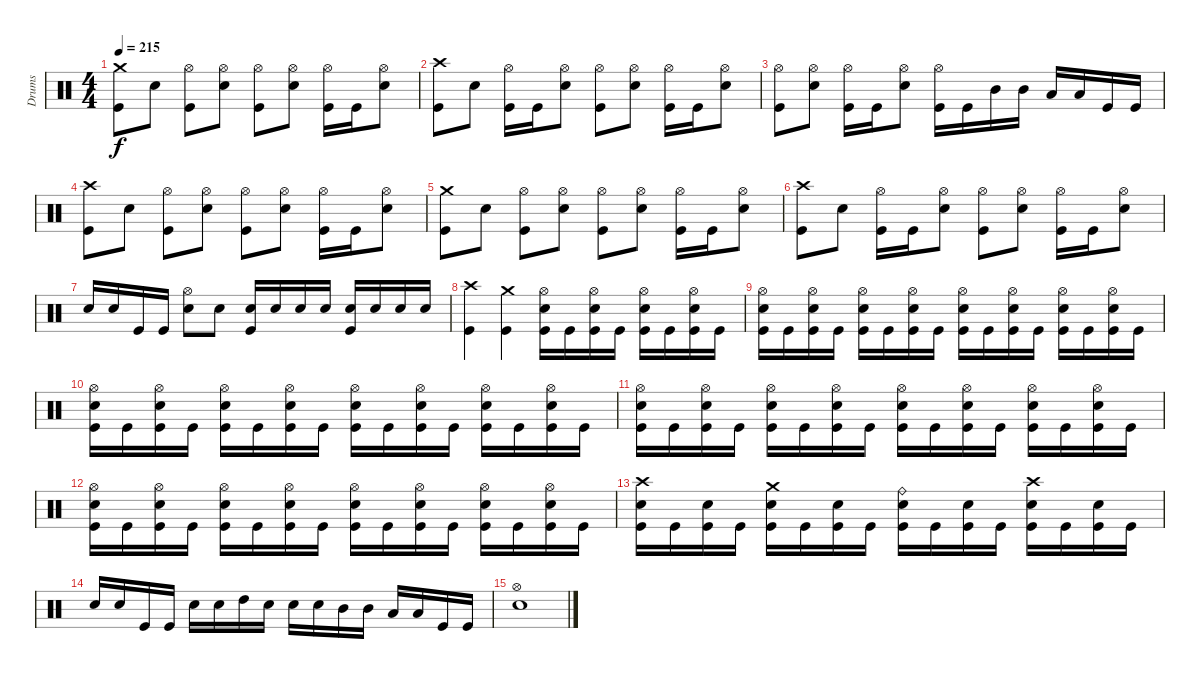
\track ("Drums" "Drums") {instrument percussion}
\staff {score}
\articulation defaults
\ts (4 4)
\tempo 215
\clef neutral
\ks c
("Crash medium (hit)" "Kick (hit)").8{dy f} "Snare (hit) 2".8 ("Hi-Hat (open)" "Kick (hit)").8 ("Hi-Hat (open)" "Snare (hit) 2").8 ("Hi-Hat (open)" "Kick (hit)").8 ("Hi-Hat (open)" "Snare (hit) 2").8 ("Hi-Hat (open)" "Kick (hit)").16 "Kick (hit)".16 ("Hi-Hat (open)" "Snare (hit) 2").8 |
("Crash high (hit)" "Kick (hit)").8 "Snare (hit) 2".8 ("Hi-Hat (open)" "Kick (hit)").16 "Kick (hit)".16 ("Hi-Hat (open)" "Snare (hit) 2").8 ("Hi-Hat (open)" "Kick (hit)").8 ("Hi-Hat (open)" "Snare (hit) 2").8 ("Hi-Hat (open)" "Kick (hit)").16 "Kick (hit)".16 ("Hi-Hat (open)" "Snare (hit) 2").8 |
("Hi-Hat (open)" "Kick (hit)").8 ("Hi-Hat (open)" "Snare (hit) 2").8 ("Hi-Hat (open)" "Kick (hit)").16 "Kick (hit)".16 ("Hi-Hat (open)" "Snare (hit) 2").8 ("Hi-Hat (open)" "Kick (hit)").16 "Kick (hit)".16 "Mid Tom (hit)".16 "Mid Tom (hit)".16 "Low Tom (hit)".16 "Low Tom (hit)".16 "Kick (hit)".16 "Kick (hit)".16 |
("Crash high (hit)" "Kick (hit)").8 "Snare (hit) 2".8 ("Hi-Hat (open)" "Kick (hit)").8 ("Hi-Hat (open)" "Snare (hit) 2").8 ("Hi-Hat (open)" "Kick (hit)").8 ("Hi-Hat (open)" "Snare (hit) 2").8 ("Hi-Hat (open)" "Kick (hit)").16 "Kick (hit)".16 ("Hi-Hat (open)" "Snare (hit) 2").8 |
("Crash medium (hit)" "Kick (hit)").8 "Snare (hit) 2".8 ("Hi-Hat (open)" "Kick (hit)").8 ("Hi-Hat (open)" "Snare (hit) 2").8 ("Hi-Hat (open)" "Kick (hit)").8 ("Hi-Hat (open)" "Snare (hit) 2").8 ("Hi-Hat (open)" "Kick (hit)").16 "Kick (hit)".16 ("Hi-Hat (open)" "Snare (hit) 2").8 |
("Crash high (hit)" "Kick (hit)").8 "Snare (hit) 2".8 ("Hi-Hat (open)" "Kick (hit)").16 "Kick (hit)".16 ("Hi-Hat (open)" "Snare (hit) 2").8 ("Hi-Hat (open)" "Kick (hit)").8 ("Hi-Hat (open)" "Snare (hit) 2").8 ("Hi-Hat (open)" "Kick (hit)").16 "Kick (hit)".16 ("Hi-Hat (open)" "Snare (hit) 2").8 |
"Snare (hit) 2".16 "Snare (hit) 2".16 "Kick (hit)".16 "Kick (hit)".16 ("Hi-Hat (open)" "Snare (hit) 2").8 "Snare (hit) 2".8 ("Snare (hit) 2" "Kick (hit)").16 "Snare (hit) 2".16 "Snare (hit) 2".16 "Snare (hit) 2".16 ("Snare (hit) 2" "Kick (hit)").16 "Snare (hit) 2".16 "Snare (hit) 2".16 "Snare (hit) 2".16 |
("Crash high (hit)" "Kick (hit)").4 ("Crash medium (hit)" "Kick (hit)").4 ("Hi-Hat (open)" "Snare (hit) 2" "Kick (hit)").16 "Kick (hit)".16 ("Hi-Hat (open)" "Snare (hit) 2" "Kick (hit)").16 "Kick (hit)".16 ("Hi-Hat (open)" "Snare (hit) 2" "Kick (hit)").16 "Kick (hit)".16 ("Hi-Hat (open)" "Snare (hit) 2" "Kick (hit)").16 "Kick (hit)".16 |
("Hi-Hat (open)" "Snare (hit) 2" "Kick (hit)").16 "Kick (hit)".16 ("Hi-Hat (open)" "Snare (hit) 2" "Kick (hit)").16 "Kick (hit)".16 ("Hi-Hat (open)" "Snare (hit) 2" "Kick (hit)").16 "Kick (hit)".16 ("Hi-Hat (open)" "Snare (hit) 2" "Kick (hit)").16 "Kick (hit)".16 ("Hi-Hat (open)" "Snare (hit) 2" "Kick (hit)").16 "Kick (hit)".16 ("Hi-Hat (open)" "Snare (hit) 2" "Kick (hit)").16 "Kick (hit)".16 ("Hi-Hat (open)" "Snare (hit) 2" "Kick (hit)").16 "Kick (hit)".16 ("Hi-Hat (open)" "Snare (hit) 2" "Kick (hit)").16 "Kick (hit)".16 |
("Hi-Hat (open)" "Snare (hit) 2" "Kick (hit)").16 "Kick (hit)".16 ("Hi-Hat (open)" "Snare (hit) 2" "Kick (hit)").16 "Kick (hit)".16 ("Hi-Hat (open)" "Snare (hit) 2" "Kick (hit)").16 "Kick (hit)".16 ("Hi-Hat (open)" "Snare (hit) 2" "Kick (hit)").16 "Kick (hit)".16 ("Hi-Hat (open)" "Snare (hit) 2" "Kick (hit)").16 "Kick (hit)".16 ("Hi-Hat (open)" "Snare (hit) 2" "Kick (hit)").16 "Kick (hit)".16 ("Hi-Hat (open)" "Snare (hit) 2" "Kick (hit)").16 "Kick (hit)".16 ("Hi-Hat (open)" "Snare (hit) 2" "Kick (hit)").16 "Kick (hit)".16 |
("Hi-Hat (open)" "Snare (hit) 2" "Kick (hit)").16 "Kick (hit)".16 ("Hi-Hat (open)" "Snare (hit) 2" "Kick (hit)").16 "Kick (hit)".16 ("Hi-Hat (open)" "Snare (hit) 2" "Kick (hit)").16 "Kick (hit)".16 ("Hi-Hat (open)" "Snare (hit) 2" "Kick (hit)").16 "Kick (hit)".16 ("Hi-Hat (open)" "Snare (hit) 2" "Kick (hit)").16 "Kick (hit)".16 ("Hi-Hat (open)" "Snare (hit) 2" "Kick (hit)").16 "Kick (hit)".16 ("Hi-Hat (open)" "Snare (hit) 2" "Kick (hit)").16 "Kick (hit)".16 ("Hi-Hat (open)" "Snare (hit) 2" "Kick (hit)").16 "Kick (hit)".16 |
("Hi-Hat (open)" "Snare (hit) 2" "Kick (hit)").16 "Kick (hit)".16 ("Hi-Hat (open)" "Snare (hit) 2" "Kick (hit)").16 "Kick (hit)".16 ("Hi-Hat (open)" "Snare (hit) 2" "Kick (hit)").16 "Kick (hit)".16 ("Hi-Hat (open)" "Snare (hit) 2" "Kick (hit)").16 "Kick (hit)".16 ("Hi-Hat (open)" "Snare (hit) 2" "Kick (hit)").16 "Kick (hit)".16 ("Hi-Hat (open)" "Snare (hit) 2" "Kick (hit)").16 "Kick (hit)".16 ("Hi-Hat (open)" "Snare (hit) 2" "Kick (hit)").16 "Kick (hit)".16 ("Hi-Hat (open)" "Snare (hit) 2" "Kick (hit)").16 "Kick (hit)".16 |
("Crash high (hit)" "Snare (hit) 2" "Kick (hit)").16 "Kick (hit)".16 ("Snare (hit) 2" "Kick (hit)").16 "Kick (hit)".16 ("Crash medium (hit)" "Snare (hit) 2" "Kick (hit)").16 "Kick (hit)".16 ("Snare (hit) 2" "Kick (hit)").16 "Kick (hit)".16 ("Ride (bell)" "Snare (hit) 2" "Kick (hit)").16 "Kick (hit)".16 ("Snare (hit) 2" "Kick (hit)").16 "Kick (hit)".16 ("Crash high (hit)" "Snare (hit) 2" "Kick (hit)").16 "Kick (hit)".16 ("Snare (hit) 2" "Kick (hit)").16 "Kick (hit)".16 |
"Snare (hit) 2".16 "Snare (hit) 2".16 "Kick (hit)".16 "Kick (hit)".16 "Snare (hit) 2".16 "Snare (hit) 2".16 "High Tom (hit)".16 "Snare (hit) 2".16 "Snare (hit) 2".16 "Snare (hit) 2".16 "Mid Tom (hit)".16 "Mid Tom (hit)".16 "Low Tom (hit)".16 "Low Tom (hit)".16 "Kick (hit)".16 "Kick (hit)".16 |
("Hi-Hat (open)" "Snare (hit) 2").1
